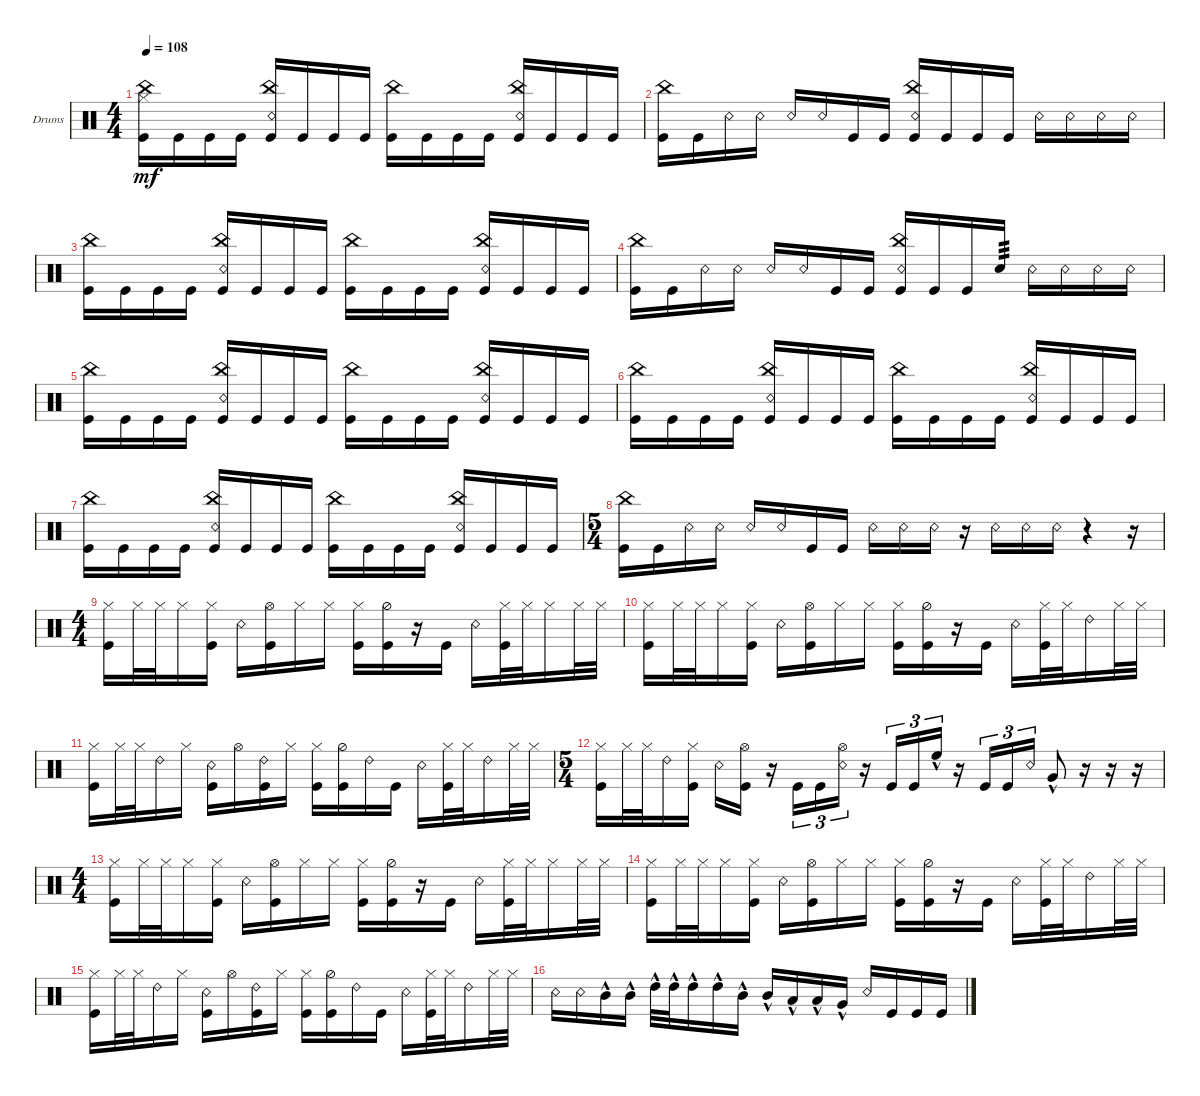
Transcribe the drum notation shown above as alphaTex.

\defaultSystemsLayout 4
\bracketExtendMode groupsimilarinstruments
\firstSystemTrackNameOrientation horizontal
\otherSystemsTrackNameOrientation horizontal
\track ("Drumkit" "Drums") {instrument percussion}
\staff {score}
\articulation defaults
\ts (4 4)
\tempo 108
\clef neutral
\ks c
("Kick (hit)" "China (hit)" "Hi-Hat (closed)").16{dy mf} "Kick (hit)".16 "Kick (hit)".16 "Kick (hit)".16 ("Kick (hit)" "China (hit)" "Snare (rim shot)").16 "Kick (hit)".16 "Kick (hit)".16 "Kick (hit)".16 ("Kick (hit)" "China (hit)").16 "Kick (hit)".16 "Kick (hit)".16 "Kick (hit)".16 ("Kick (hit)" "China (hit)" "Snare (rim shot)").16 "Kick (hit)".16 "Kick (hit)".16 "Kick (hit)".16 |
("Kick (hit)" "China (hit)").16 "Kick (hit)".16 "Snare (rim shot)".16 "Snare (rim shot)".16 "Snare (rim shot)".16 "Snare (rim shot)".16 "Kick (hit)".16 "Kick (hit)".16 ("Kick (hit)" "Snare (rim shot)" "China (hit)").16 "Kick (hit)".16 "Kick (hit)".16 "Kick (hit)".16 "Snare (rim shot)".16 "Snare (rim shot)".16 "Snare (rim shot)".16 "Snare (rim shot)".16 |
("Kick (hit)" "China (hit)").16 "Kick (hit)".16 "Kick (hit)".16 "Kick (hit)".16 ("Kick (hit)" "China (hit)" "Snare (rim shot)").16 "Kick (hit)".16 "Kick (hit)".16 "Kick (hit)".16 ("Kick (hit)" "China (hit)").16 "Kick (hit)".16 "Kick (hit)".16 "Kick (hit)".16 ("Kick (hit)" "China (hit)" "Snare (rim shot)").16 "Kick (hit)".16 "Kick (hit)".16 "Kick (hit)".16 |
("Kick (hit)" "China (hit)").16 "Kick (hit)".16 "Snare (rim shot)".16 "Snare (rim shot)".16 "Snare (rim shot)".16 "Snare (rim shot)".16 "Kick (hit)".16 "Kick (hit)".16 ("Kick (hit)" "Snare (rim shot)" "China (hit)").16 "Kick (hit)".16 "Kick (hit)".16 "Snare (hit) 2".16{tp 3} "Snare (rim shot)".16 "Snare (rim shot)".16 "Snare (rim shot)".16 "Snare (rim shot)".16 |
("Kick (hit)" "China (hit)").16 "Kick (hit)".16 "Kick (hit)".16 "Kick (hit)".16 ("Kick (hit)" "China (hit)" "Snare (rim shot)").16 "Kick (hit)".16 "Kick (hit)".16 "Kick (hit)".16 ("Kick (hit)" "China (hit)").16 "Kick (hit)".16 "Kick (hit)".16 "Kick (hit)".16 ("Kick (hit)" "China (hit)" "Snare (rim shot)").16 "Kick (hit)".16 "Kick (hit)".16 "Kick (hit)".16 |
("Kick (hit)" "China (hit)").16 "Kick (hit)".16 "Kick (hit)".16 "Kick (hit)".16 ("Snare (rim shot)" "China (hit)" "Kick (hit)").16 "Kick (hit)".16 "Kick (hit)".16 "Kick (hit)".16 ("Kick (hit)" "China (hit)").16 "Kick (hit)".16 "Kick (hit)".16 "Kick (hit)".16 ("Snare (rim shot)" "Kick (hit)" "China (hit)").16 "Kick (hit)".16 "Kick (hit)".16 "Kick (hit)".16 |
("Kick (hit)" "China (hit)").16 "Kick (hit)".16 "Kick (hit)".16 "Kick (hit)".16 ("Kick (hit)" "China (hit)" "Snare (rim shot)").16 "Kick (hit)".16 "Kick (hit)".16 "Kick (hit)".16 ("Kick (hit)" "China (hit)").16 "Kick (hit)".16 "Kick (hit)".16 "Kick (hit)".16 ("Kick (hit)" "China (hit)" "Snare (rim shot)").16 "Kick (hit)".16 "Kick (hit)".16 "Kick (hit)".16 |
\ts (5 4)
("Kick (hit)" "China (hit)").16 "Kick (hit)".16 "Snare (rim shot)".16 "Snare (rim shot)".16 "Snare (rim shot)".16 "Snare (rim shot)".16 "Kick (hit)".16 "Kick (hit)".16 "Snare (rim shot)".16 "Snare (rim shot)".16 "Snare (rim shot)".16 r.16 "Snare (rim shot)".16 "Snare (rim shot)".16 "Snare (rim shot)".16 r.4 r.16 |
\ts (4 4)
("Hi-Hat (closed)" "Kick (hit)").16 "Hi-Hat (closed)".32 "Hi-Hat (closed)".32 "Hi-Hat (closed)".16 ("Kick (hit)" "Hi-Hat (closed)").16 "Snare (rim shot)".16 ("Hi-Hat (open)" "Kick (hit)").16 "Hi-Hat (closed)".16 "Hi-Hat (closed)".16 ("Hi-Hat (closed)" "Kick (hit)").16 ("Kick (hit)" "Hi-Hat (half)").16 r.16 "Kick (hit)".16 "Snare (rim shot)".16 ("Kick (hit)" "Hi-Hat (closed)").32 "Hi-Hat (closed)".32 "Hi-Hat (closed)".16 "Hi-Hat (closed)".32 "Hi-Hat (closed)".32 |
("Hi-Hat (closed)" "Kick (hit)").16 "Hi-Hat (closed)".32 "Hi-Hat (closed)".32 "Hi-Hat (closed)".16 ("Kick (hit)" "Hi-Hat (closed)").16 "Snare (rim shot)".16 ("Hi-Hat (open)" "Kick (hit)").16 "Hi-Hat (closed)".16 "Hi-Hat (closed)".16 ("Hi-Hat (closed)" "Kick (hit)").16 ("Kick (hit)" "Hi-Hat (half)").16 r.16 "Kick (hit)".16 "Snare (rim shot)".16 ("Kick (hit)" "Hi-Hat (closed)").32 "Hi-Hat (closed)".32 "Ride (bell) 2".16 "Hi-Hat (closed)".32 "Hi-Hat (closed)".32 |
("Hi-Hat (closed)" "Kick (hit)").16 "Hi-Hat (closed)".32 "Hi-Hat (closed)".32 "Ride (bell) 2".16 "Hi-Hat (closed)".16 ("Snare (rim shot)" "Kick (hit)").16 "Hi-Hat (open)".16 ("Ride (bell) 2" "Kick (hit)").16 "Hi-Hat (closed)".16 ("Hi-Hat (closed)" "Kick (hit)").16 ("Kick (hit)" "Hi-Hat (half)").16 "Ride (bell) 2".16 "Kick (hit)".16 "Snare (rim shot)".16 ("Kick (hit)" "Hi-Hat (closed)").32 "Hi-Hat (closed)".32 "Ride (bell) 2".16 "Hi-Hat (closed)".32 "Hi-Hat (closed)".32 |
\ts (5 4)
("Hi-Hat (closed)" "Kick (hit)").16 "Hi-Hat (closed)".32 "Hi-Hat (closed)".32 "Ride (bell) 2".16 ("Kick (hit)" "Hi-Hat (closed)").16 "Snare (rim shot)".16 ("Hi-Hat (open)" "Kick (hit)").16 r.16 "Kick (hit)".16{tu (3 2)} "Kick (hit)".16{tu (3 2)} ("Snare (rim shot)" "Hi-Hat (open)").16{tu (3 2)} r.16 "Kick (hit)".16{tu (3 2)} "Kick (hit)".16{tu (3 2)} "High Floor Tom (hit)"{hac}.16{tu (3 2)} r.16 "Kick (hit)".16{tu (3 2)} "Kick (hit)".16{tu (3 2)} "Snare (rim shot)".16{tu (3 2)} "Very Low Tom (hit)"{hac}.8 r.16 r.16 r.16 |
\ts (4 4)
("Hi-Hat (closed)" "Kick (hit)").16 "Hi-Hat (closed)".32 "Hi-Hat (closed)".32 "Hi-Hat (closed)".16 ("Kick (hit)" "Hi-Hat (closed)").16 "Snare (rim shot)".16 ("Hi-Hat (open)" "Kick (hit)").16 "Hi-Hat (closed)".16 "Hi-Hat (closed)".16 ("Hi-Hat (closed)" "Kick (hit)").16 ("Kick (hit)" "Hi-Hat (half)").16 r.16 "Kick (hit)".16 "Snare (rim shot)".16 ("Kick (hit)" "Hi-Hat (closed)").32 "Hi-Hat (closed)".32 "Hi-Hat (closed)".16 "Hi-Hat (closed)".32 "Hi-Hat (closed)".32 |
("Hi-Hat (closed)" "Kick (hit)").16 "Hi-Hat (closed)".32 "Hi-Hat (closed)".32 "Hi-Hat (closed)".16 ("Kick (hit)" "Hi-Hat (closed)").16 "Snare (rim shot)".16 ("Hi-Hat (open)" "Kick (hit)").16 "Hi-Hat (closed)".16 "Hi-Hat (closed)".16 ("Hi-Hat (closed)" "Kick (hit)").16 ("Kick (hit)" "Hi-Hat (half)").16 r.16 "Kick (hit)".16 "Snare (rim shot)".16 ("Kick (hit)" "Hi-Hat (closed)").32 "Hi-Hat (closed)".32 "Ride (bell) 2".16 "Hi-Hat (closed)".32 "Hi-Hat (closed)".32 |
("Hi-Hat (closed)" "Kick (hit)").16 "Hi-Hat (closed)".32 "Hi-Hat (closed)".32 "Ride (bell) 2".16 "Hi-Hat (closed)".16 ("Snare (rim shot)" "Kick (hit)").16 "Hi-Hat (open)".16 ("Ride (bell) 2" "Kick (hit)").16 "Hi-Hat (closed)".16 ("Hi-Hat (closed)" "Kick (hit)").16 ("Kick (hit)" "Hi-Hat (half)").16 "Ride (bell) 2".16 "Kick (hit)".16 "Snare (rim shot)".16 ("Kick (hit)" "Hi-Hat (closed)").32 "Hi-Hat (closed)".32 "Ride (bell) 2".16 "Hi-Hat (closed)".32 "Hi-Hat (closed)".32 |
"Snare (rim shot)".16 "Snare (rim shot)".16 "Mid Tom (hit)"{hac}.16 "Mid Tom (hit)"{hac}.16 "High Tom (hit)"{hac}.32 "High Tom (hit)"{hac}.32 "High Tom (hit)"{hac}.16 "High Tom (hit)"{hac}.16 "Mid Tom (hit)"{hac}.16 "Mid Tom (hit)"{hac}.16 "Low Tom (hit)"{hac}.16 "Low Tom (hit)"{hac}.16 "Very Low Tom (hit)"{hac}.16 "Snare (rim shot)".16 "Kick (hit)".16 "Kick (hit)".16 "Kick (hit)".16
